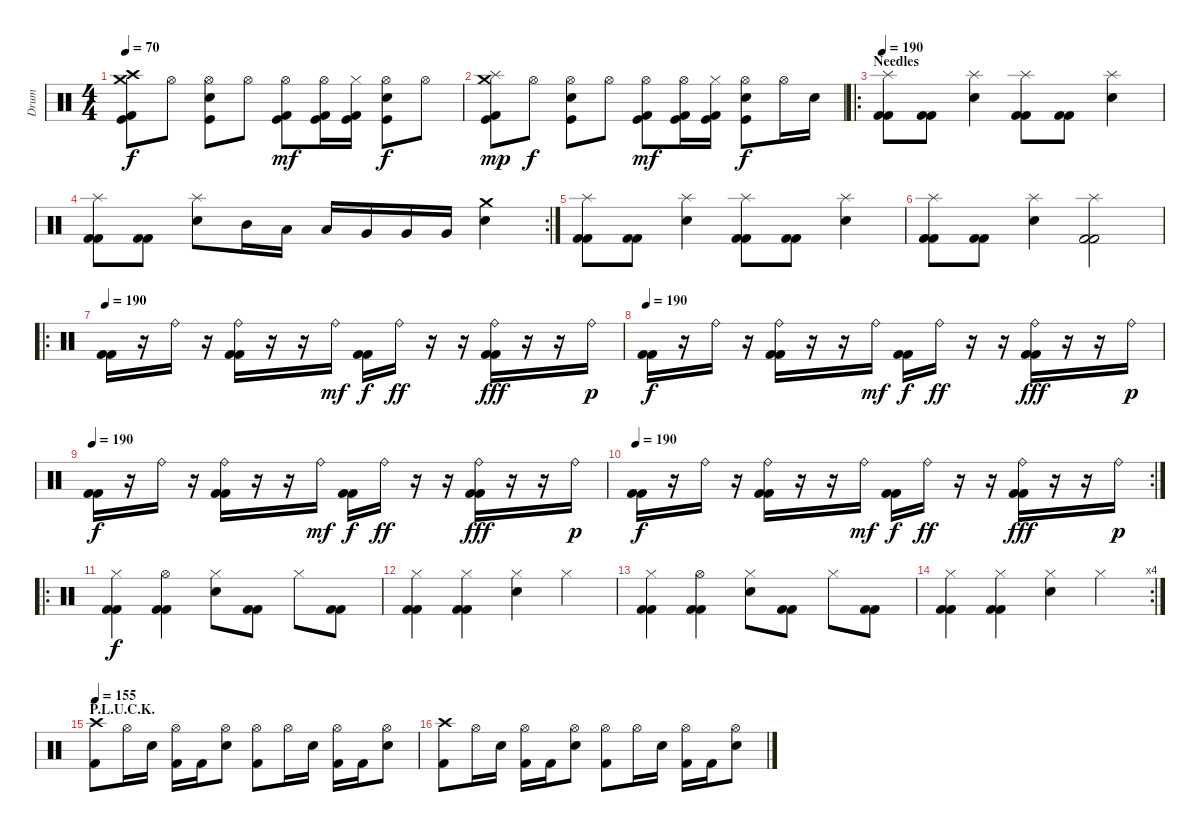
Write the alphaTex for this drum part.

\track ("Drum" "Drum") {instrument percussion}
\staff {score}
\articulation defaults
\ts (4 4)
\tempo 70
\clef neutral
\ks c
("Crash medium (hit)" "Crash high (hit)" "Kick (hit) 2" "Kick (hit)").8{dy f} "Hi-Hat (open)".8 ("Hi-Hat (open)" "Electric Snare (hit)" "Kick (hit)").8 "Hi-Hat (open)".8 ("Hi-Hat (open)" "Kick (hit) 2" "Kick (hit)").8{dy mf} ("Hi-Hat (open)" "Kick (hit)" "Kick (hit) 2").16 ("Hi-Hat (closed)" "Kick (hit)" "Kick (hit) 2").16 ("Hi-Hat (open)" "Electric Snare (hit)" "Kick (hit)").8{dy f} "Hi-Hat (open)".8 |
("Crash medium (hit)" "Splash (hit)" "Kick (hit) 2" "Kick (hit)").8{dy mp} "Hi-Hat (open)".8{dy f} ("Hi-Hat (open)" "Electric Snare (hit)" "Kick (hit)").8 "Hi-Hat (open)".8 ("Hi-Hat (open)" "Kick (hit) 2" "Kick (hit)").8{dy mf} ("Hi-Hat (open)" "Kick (hit)" "Kick (hit) 2").16 ("Hi-Hat (closed)" "Kick (hit)" "Kick (hit) 2").16 ("Hi-Hat (open)" "Electric Snare (hit)" "Kick (hit)").8{dy f} "Hi-Hat (open)".16 "Electric Snare (hit)".16 |
\ro
\section ("" "Needles")
\tempo 190
("Splash (hit)" "Kick (hit) 2" "Kick (hit) 2").8 ("Kick (hit) 2" "Kick (hit) 2").8 ("Splash (hit)" "Snare (hit) 2").4 ("Splash (hit)" "Kick (hit) 2" "Kick (hit) 2").8 ("Kick (hit) 2" "Kick (hit) 2").8 ("Splash (hit)" "Snare (hit) 2").4 |
\rc 2
("Splash (hit)" "Kick (hit) 2" "Kick (hit) 2").8 ("Kick (hit) 2" "Kick (hit) 2").8 ("Splash (hit)" "Snare (hit) 2").8 "Mid Tom (hit)".16 "Low Tom (hit)".16 "Low Tom (hit)".16 "Very Low Tom (hit)".16 "Very Low Tom (hit)".16 "Very Low Tom (hit)".16 ("Crash medium (hit)" "Snare (hit) 2").4 |
("Splash (hit)" "Kick (hit) 2" "Kick (hit) 2").8 ("Kick (hit) 2" "Kick (hit) 2").8 ("Splash (hit)" "Snare (hit) 2").4 ("Splash (hit)" "Kick (hit) 2" "Kick (hit) 2").8 ("Kick (hit) 2" "Kick (hit) 2").8 ("Splash (hit)" "Snare (hit) 2").4 |
("Splash (hit)" "Kick (hit) 2" "Kick (hit) 2").8 ("Kick (hit) 2" "Kick (hit) 2").8 ("Splash (hit)" "Snare (hit) 2").4 ("Splash (hit)" "Kick (hit) 2" "Kick (hit) 2").2 |
\ro
\tempo 190
("Kick (hit) 2" "Kick (hit) 2").16 r.16 "Ride (bell)".16 r.16 ("Ride (bell)" "Kick (hit) 2" "Kick (hit) 2").16 r.16 r.16 "Ride (bell)".16{dy mf} ("Kick (hit) 2" "Kick (hit) 2").16{dy f} "Ride (bell)".16{dy ff} r.16 r.16 ("Ride (bell)" "Kick (hit) 2" "Kick (hit) 2").16{dy fff} r.16 r.16 "Ride (bell)".16{dy p} |
\tempo 190
("Kick (hit) 2" "Kick (hit) 2").16{dy f} r.16 "Ride (bell)".16 r.16 ("Ride (bell)" "Kick (hit) 2" "Kick (hit) 2").16 r.16 r.16 "Ride (bell)".16{dy mf} ("Kick (hit) 2" "Kick (hit) 2").16{dy f} "Ride (bell)".16{dy ff} r.16 r.16 ("Ride (bell)" "Kick (hit) 2" "Kick (hit) 2").16{dy fff} r.16 r.16 "Ride (bell)".16{dy p} |
\tempo 190
("Kick (hit) 2" "Kick (hit) 2").16{dy f} r.16 "Ride (bell)".16 r.16 ("Ride (bell)" "Kick (hit) 2" "Kick (hit) 2").16 r.16 r.16 "Ride (bell)".16{dy mf} ("Kick (hit) 2" "Kick (hit) 2").16{dy f} "Ride (bell)".16{dy ff} r.16 r.16 ("Ride (bell)" "Kick (hit) 2" "Kick (hit) 2").16{dy fff} r.16 r.16 "Ride (bell)".16{dy p} |
\rc 2
\tempo 190
("Kick (hit) 2" "Kick (hit) 2").16{dy f} r.16 "Ride (bell)".16 r.16 ("Ride (bell)" "Kick (hit) 2" "Kick (hit) 2").16 r.16 r.16 "Ride (bell)".16{dy mf} ("Kick (hit) 2" "Kick (hit) 2").16{dy f} "Ride (bell)".16{dy ff} r.16 r.16 ("Ride (bell)" "Kick (hit) 2" "Kick (hit) 2").16{dy fff} r.16 r.16 "Ride (bell)".16{dy p} |
\ro
("Hi-Hat (closed)" "Kick (hit) 2" "Kick (hit) 2").4{dy f} ("Hi-Hat (open)" "Kick (hit) 2" "Kick (hit) 2").4 ("Hi-Hat (closed)" "Snare (hit) 2").8 ("Kick (hit) 2" "Kick (hit) 2").8 "Hi-Hat (closed)".8 ("Kick (hit) 2" "Kick (hit) 2").8 |
("Hi-Hat (closed)" "Kick (hit) 2" "Kick (hit) 2").4 ("Hi-Hat (closed)" "Kick (hit) 2" "Kick (hit) 2").4 ("Hi-Hat (closed)" "Snare (hit) 2").4 "Hi-Hat (closed)".4 |
("Hi-Hat (closed)" "Kick (hit) 2" "Kick (hit) 2").4 ("Hi-Hat (open)" "Kick (hit) 2" "Kick (hit) 2").4 ("Hi-Hat (closed)" "Snare (hit) 2").8 ("Kick (hit) 2" "Kick (hit) 2").8 "Hi-Hat (closed)".8 ("Kick (hit) 2" "Kick (hit) 2").8 |
\rc 4
("Hi-Hat (closed)" "Kick (hit) 2" "Kick (hit) 2").4 ("Hi-Hat (closed)" "Kick (hit) 2" "Kick (hit) 2").4 ("Hi-Hat (closed)" "Snare (hit) 2").4 "Hi-Hat (closed)".4 |
\section ("" "P.L.U.C.K.")
\tempo 155
("Kick (hit) 2" "Crash high (hit)").8 "Hi-Hat (open)".16 "Electric Snare (hit)".16 ("Kick (hit) 2" "Hi-Hat (open)").16 "Kick (hit) 2".16 ("Electric Snare (hit)" "Hi-Hat (open)").8 ("Kick (hit) 2" "Hi-Hat (open)").8 "Hi-Hat (open)".16 "Electric Snare (hit)".16 ("Kick (hit) 2" "Hi-Hat (open)").16 "Kick (hit) 2".16 ("Electric Snare (hit)" "Hi-Hat (open)").8 |
("Kick (hit) 2" "Crash high (hit)").8 "Hi-Hat (open)".16 "Electric Snare (hit)".16 ("Kick (hit) 2" "Hi-Hat (open)").16 "Kick (hit) 2".16 ("Electric Snare (hit)" "Hi-Hat (open)").8 ("Kick (hit) 2" "Hi-Hat (open)").8 "Hi-Hat (open)".16 "Electric Snare (hit)".16 ("Kick (hit) 2" "Hi-Hat (open)").16 "Kick (hit) 2".16 ("Electric Snare (hit)" "Hi-Hat (open)").8
